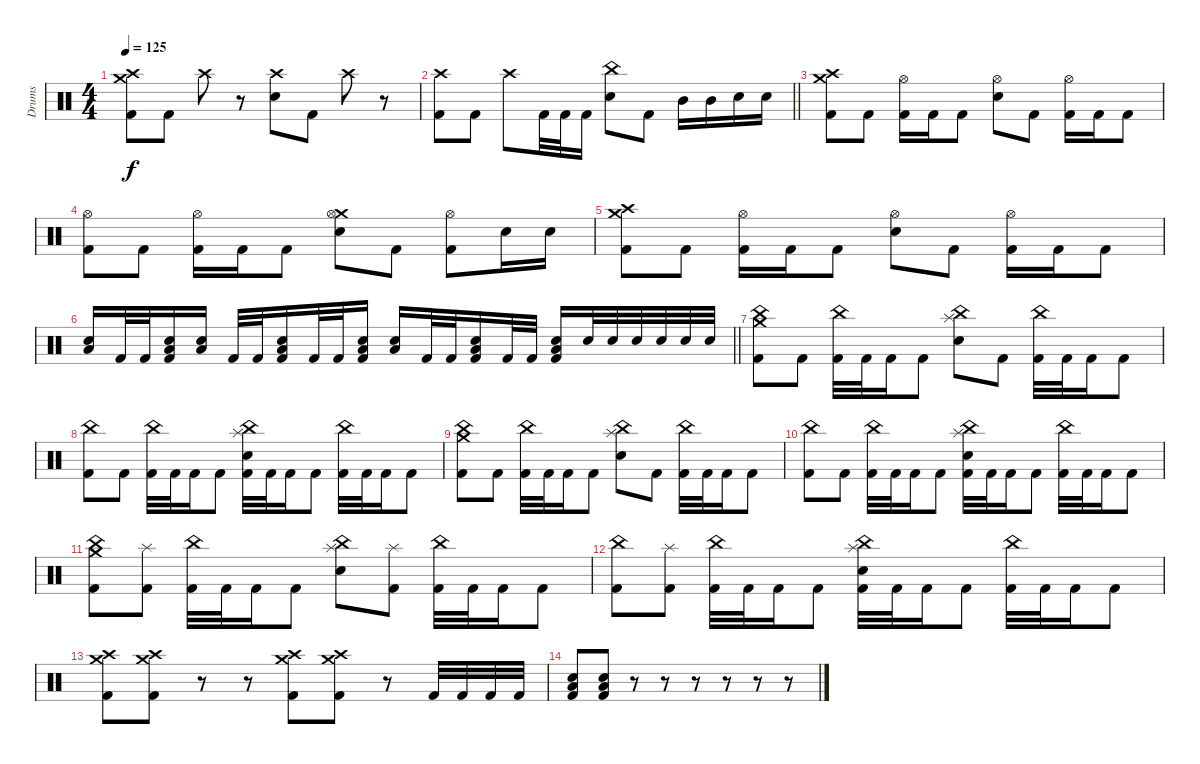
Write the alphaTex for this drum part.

\track ("Drums" "Drums") {instrument percussion}
\staff {score}
\articulation defaults
\ts (4 4)
\tempo 125
\clef neutral
\ks c
("Crash medium (hit)" "Crash high (hit)" "Kick (hit) 2").8{dy f} "Kick (hit) 2".8 "Crash high (hit)".8 r.8 ("Crash high (hit)" "Electric Snare (hit)").8 "Kick (hit) 2".8 "Crash high (hit)".8 r.8 |
\barLineRight lightlight
("Crash high (hit)" "Kick (hit) 2").8 "Kick (hit) 2".8 "Crash high (hit)".8 "Kick (hit) 2".32 "Kick (hit) 2".32 "Kick (hit) 2".16 ("China (hit)" "Electric Snare (hit)").8 "Kick (hit) 2".8 "Mid Tom (hit)".16 "Mid Tom (hit)".16 "Electric Snare (hit)".16 "Electric Snare (hit)".16 |
\section ("" "")
("Crash medium (hit)" "Crash high (hit)" "Kick (hit) 2").8 "Kick (hit) 2".8 ("Hi-Hat (open)" "Kick (hit) 2").16 "Kick (hit) 2".16 "Kick (hit) 2".8 ("Hi-Hat (open)" "Electric Snare (hit)").8 "Kick (hit) 2".8 ("Hi-Hat (open)" "Kick (hit) 2").16 "Kick (hit) 2".16 "Kick (hit) 2".8 |
("Hi-Hat (open)" "Kick (hit) 2").8 "Kick (hit) 2".8 ("Hi-Hat (open)" "Kick (hit) 2").16 "Kick (hit) 2".16 "Kick (hit) 2".8 ("Crash medium (hit)" "Hi-Hat (open)" "Electric Snare (hit)").8 "Kick (hit) 2".8 ("Hi-Hat (open)" "Kick (hit) 2").8 "Electric Snare (hit)".16 "Electric Snare (hit)".16 |
("Crash medium (hit)" "Crash high (hit)" "Kick (hit) 2").8 "Kick (hit) 2".8 ("Hi-Hat (open)" "Kick (hit) 2").16 "Kick (hit) 2".16 "Kick (hit) 2".8 ("Hi-Hat (open)" "Electric Snare (hit)").8 "Kick (hit) 2".8 ("Hi-Hat (open)" "Kick (hit) 2").16 "Kick (hit) 2".16 "Kick (hit) 2".8 |
\barLineRight lightlight
("Low Floor Tom (hit)" "Electric Snare (hit)").16 "Kick (hit) 2".32 "Kick (hit) 2".32 ("Low Floor Tom (hit)" "Electric Snare (hit)" "Kick (hit) 2").16 ("Low Floor Tom (hit)" "Electric Snare (hit)").16 "Kick (hit) 2".32 "Kick (hit) 2".32 ("Low Floor Tom (hit)" "Electric Snare (hit)" "Kick (hit) 2").16 "Kick (hit) 2".32 "Kick (hit) 2".32 ("Low Floor Tom (hit)" "Electric Snare (hit)" "Kick (hit) 2").16 ("Low Floor Tom (hit)" "Electric Snare (hit)").16 "Kick (hit) 2".32 "Kick (hit) 2".32 ("Low Floor Tom (hit)" "Electric Snare (hit)" "Kick (hit) 2").16 "Kick (hit) 2".32 "Kick (hit) 2".32 ("Low Floor Tom (hit)" "Electric Snare (hit)" "Kick (hit) 2").16 "Electric Snare (hit)".32 "Electric Snare (hit)".32 "Electric Snare (hit)".32 "Electric Snare (hit)".32 "Electric Snare (hit)".32 "Electric Snare (hit)".32 |
\section ("" "")
("China (hit)" "Crash medium (hit)" "Kick (hit) 2").8 "Kick (hit) 2".8 ("China (hit)" "Kick (hit) 2").32 "Kick (hit) 2".32 "Kick (hit) 2".16 "Kick (hit) 2".8 ("Splash (hit)" "China (hit)" "Electric Snare (hit)").8 "Kick (hit) 2".8 ("China (hit)" "Kick (hit) 2").32 "Kick (hit) 2".32 "Kick (hit) 2".16 "Kick (hit) 2".8 |
("China (hit)" "Kick (hit) 2").8 "Kick (hit) 2".8 ("China (hit)" "Kick (hit) 2").32 "Kick (hit) 2".32 "Kick (hit) 2".16 "Kick (hit) 2".8 ("Splash (hit)" "China (hit)" "Electric Snare (hit)" "Kick (hit) 2").32 "Kick (hit) 2".32 "Kick (hit) 2".16 "Kick (hit) 2".8 ("China (hit)" "Kick (hit) 2").32 "Kick (hit) 2".32 "Kick (hit) 2".16 "Kick (hit) 2".8 |
("China (hit)" "Crash medium (hit)" "Kick (hit) 2").8 "Kick (hit) 2".8 ("China (hit)" "Kick (hit) 2").32 "Kick (hit) 2".32 "Kick (hit) 2".16 "Kick (hit) 2".8 ("Splash (hit)" "China (hit)" "Electric Snare (hit)").8 "Kick (hit) 2".8 ("China (hit)" "Kick (hit) 2").32 "Kick (hit) 2".32 "Kick (hit) 2".16 "Kick (hit) 2".8 |
("China (hit)" "Kick (hit) 2").8 "Kick (hit) 2".8 ("China (hit)" "Kick (hit) 2").32 "Kick (hit) 2".32 "Kick (hit) 2".16 "Kick (hit) 2".8 ("Splash (hit)" "China (hit)" "Electric Snare (hit)" "Kick (hit) 2").32 "Kick (hit) 2".32 "Kick (hit) 2".16 "Kick (hit) 2".8 ("China (hit)" "Kick (hit) 2").32 "Kick (hit) 2".32 "Kick (hit) 2".16 "Kick (hit) 2".8 |
("China (hit)" "Crash medium (hit)" "Kick (hit) 2").8 ("Splash (hit)" "Kick (hit) 2").8 ("China (hit)" "Kick (hit) 2").32 "Kick (hit) 2".32 "Kick (hit) 2".16 "Kick (hit) 2".8 ("Splash (hit)" "China (hit)" "Electric Snare (hit)").8 ("Splash (hit)" "Kick (hit) 2").8 ("China (hit)" "Kick (hit) 2").32 "Kick (hit) 2".32 "Kick (hit) 2".16 "Kick (hit) 2".8 |
("China (hit)" "Kick (hit) 2").8 ("Splash (hit)" "Kick (hit) 2").8 ("China (hit)" "Kick (hit) 2").32 "Kick (hit) 2".32 "Kick (hit) 2".16 "Kick (hit) 2".8 ("Splash (hit)" "China (hit)" "Electric Snare (hit)" "Kick (hit) 2").32 "Kick (hit) 2".32 "Kick (hit) 2".16 "Kick (hit) 2".8 ("China (hit)" "Kick (hit) 2").32 "Kick (hit) 2".32 "Kick (hit) 2".16 "Kick (hit) 2".8 |
("Crash medium (hit)" "Crash high (hit)" "Kick (hit) 2").8 ("Crash medium (hit)" "Crash high (hit)" "Kick (hit) 2").8 r.8 r.8 ("Crash medium (hit)" "Crash high (hit)" "Kick (hit) 2").8 ("Crash medium (hit)" "Crash high (hit)" "Kick (hit) 2").8 r.8 "Kick (hit) 2".32 "Kick (hit) 2".32 "Kick (hit) 2".32 "Kick (hit) 2".32 |
("Low Floor Tom (hit)" "Electric Snare (hit)" "Kick (hit) 2").8 ("Low Floor Tom (hit)" "Electric Snare (hit)" "Kick (hit) 2").8 r.8 r.8 r.8 r.8 r.8 r.8
